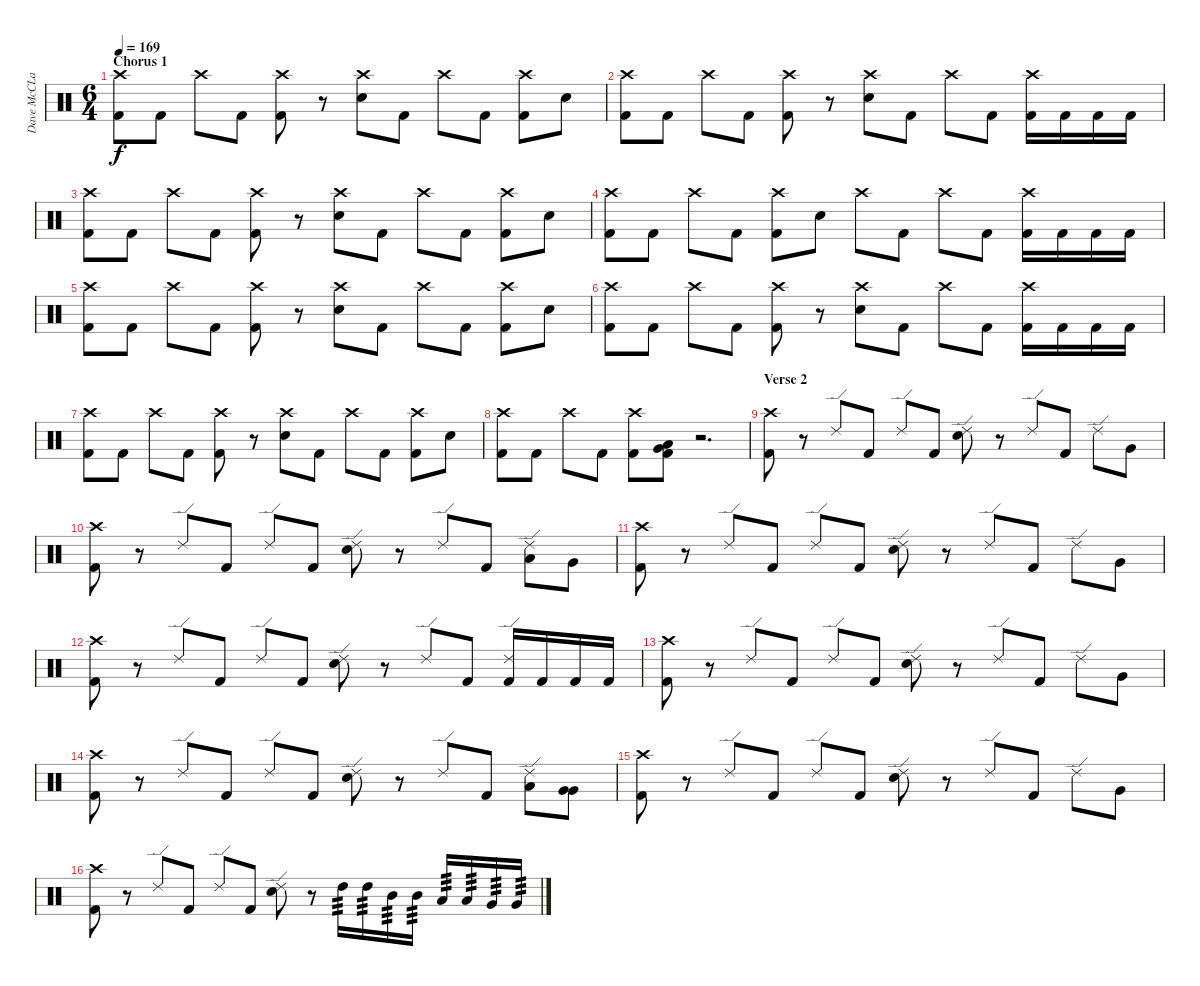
\track ("Dave McCLain" "Dave McCLa") {instrument percussion}
\staff {score}
\articulation defaults
\ts (6 4)
\section ("" "Chorus 1")
\tempo 169
\clef neutral
\ks c
("Crash high (hit)" "Kick (hit) 2").8{dy f} "Kick (hit) 2".8 "Crash high (hit)".8 "Kick (hit) 2".8 ("Crash high (hit)" "Kick (hit) 2").8 r.8 ("Crash high (hit)" "Electric Snare (hit)").8 "Kick (hit) 2".8 "Crash high (hit)".8 "Kick (hit) 2".8 ("Crash high (hit)" "Kick (hit) 2").8 "Electric Snare (hit)".8 |
("Crash high (hit)" "Kick (hit) 2").8 "Kick (hit) 2".8 "Crash high (hit)".8 "Kick (hit) 2".8 ("Crash high (hit)" "Kick (hit) 2").8 r.8 ("Crash high (hit)" "Electric Snare (hit)").8 "Kick (hit) 2".8 "Crash high (hit)".8 "Kick (hit) 2".8 ("Crash high (hit)" "Kick (hit) 2").16 "Kick (hit) 2".16 "Kick (hit) 2".16 "Kick (hit) 2".16 |
("Crash high (hit)" "Kick (hit) 2").8 "Kick (hit) 2".8 "Crash high (hit)".8 "Kick (hit) 2".8 ("Crash high (hit)" "Kick (hit) 2").8 r.8 ("Crash high (hit)" "Electric Snare (hit)").8 "Kick (hit) 2".8 "Crash high (hit)".8 "Kick (hit) 2".8 ("Crash high (hit)" "Kick (hit) 2").8 "Electric Snare (hit)".8 |
("Crash high (hit)" "Kick (hit) 2").8 "Kick (hit) 2".8 "Crash high (hit)".8 "Kick (hit) 2".8 ("Crash high (hit)" "Kick (hit) 2").8 "Electric Snare (hit)".8 "Crash high (hit)".8 "Kick (hit) 2".8 "Crash high (hit)".8 "Kick (hit) 2".8 ("Crash high (hit)" "Kick (hit) 2").16 "Kick (hit) 2".16 "Kick (hit) 2".16 "Kick (hit) 2".16 |
("Crash high (hit)" "Kick (hit) 2").8 "Kick (hit) 2".8 "Crash high (hit)".8 "Kick (hit) 2".8 ("Crash high (hit)" "Kick (hit) 2").8 r.8 ("Crash high (hit)" "Electric Snare (hit)").8 "Kick (hit) 2".8 "Crash high (hit)".8 "Kick (hit) 2".8 ("Crash high (hit)" "Kick (hit) 2").8 "Electric Snare (hit)".8 |
("Crash high (hit)" "Kick (hit) 2").8 "Kick (hit) 2".8 "Crash high (hit)".8 "Kick (hit) 2".8 ("Crash high (hit)" "Kick (hit) 2").8 r.8 ("Crash high (hit)" "Electric Snare (hit)").8 "Kick (hit) 2".8 "Crash high (hit)".8 "Kick (hit) 2".8 ("Crash high (hit)" "Kick (hit) 2").16 "Kick (hit) 2".16 "Kick (hit) 2".16 "Kick (hit) 2".16 |
("Crash high (hit)" "Kick (hit) 2").8 "Kick (hit) 2".8 "Crash high (hit)".8 "Kick (hit) 2".8 ("Crash high (hit)" "Kick (hit) 2").8 r.8 ("Crash high (hit)" "Electric Snare (hit)").8 "Kick (hit) 2".8 "Crash high (hit)".8 "Kick (hit) 2".8 ("Crash high (hit)" "Kick (hit) 2").8 "Electric Snare (hit)".8 |
("Crash high (hit)" "Kick (hit) 2").8 "Kick (hit) 2".8 "Crash high (hit)".8 "Kick (hit) 2".8 ("Crash high (hit)" "Kick (hit) 2").8 ("Low Tom (hit)" "Very Low Tom (hit)" "Kick (hit) 2").8 r.2{d} |
\section ("" "Verse 2")
("Crash high (hit)" "Kick (hit) 2").8 r.8 "Ride (edge) 2".8 "Kick (hit) 2".8 "Ride (edge) 2".8 "Kick (hit) 2".8 ("Ride (edge) 2" "Electric Snare (hit)").8 r.8 "Ride (edge) 2".8 "Kick (hit) 2".8 "Ride (edge) 2".8 "Very Low Tom (hit)".8 |
("Crash high (hit)" "Kick (hit) 2").8 r.8 "Ride (edge) 2".8 "Kick (hit) 2".8 "Ride (edge) 2".8 "Kick (hit) 2".8 ("Ride (edge) 2" "Electric Snare (hit)").8 r.8 "Ride (edge) 2".8 "Kick (hit) 2".8 ("Ride (edge) 2" "Low Tom (hit)").8 "Very Low Tom (hit)".8 |
("Crash high (hit)" "Kick (hit) 2").8 r.8 "Ride (edge) 2".8 "Kick (hit) 2".8 "Ride (edge) 2".8 "Kick (hit) 2".8 ("Ride (edge) 2" "Electric Snare (hit)").8 r.8 "Ride (edge) 2".8 "Kick (hit) 2".8 "Ride (edge) 2".8 "Very Low Tom (hit)".8 |
("Crash high (hit)" "Kick (hit) 2").8 r.8 "Ride (edge) 2".8 "Kick (hit) 2".8 "Ride (edge) 2".8 "Kick (hit) 2".8 ("Ride (edge) 2" "Electric Snare (hit)").8 r.8 "Ride (edge) 2".8 "Kick (hit) 2".8 ("Ride (edge) 2" "Kick (hit) 2").16 "Kick (hit) 2".16 "Kick (hit) 2".16 "Kick (hit) 2".16 |
("Crash high (hit)" "Kick (hit) 2").8 r.8 "Ride (edge) 2".8 "Kick (hit) 2".8 "Ride (edge) 2".8 "Kick (hit) 2".8 ("Ride (edge) 2" "Electric Snare (hit)").8 r.8 "Ride (edge) 2".8 "Kick (hit) 2".8 "Ride (edge) 2".8 "Very Low Tom (hit)".8 |
("Crash high (hit)" "Kick (hit) 2").8 r.8 "Ride (edge) 2".8 "Kick (hit) 2".8 "Ride (edge) 2".8 "Kick (hit) 2".8 ("Ride (edge) 2" "Electric Snare (hit)").8 r.8 "Ride (edge) 2".8 "Kick (hit) 2".8 ("Ride (edge) 2" "Low Tom (hit)").8 ("Very Low Tom (hit)" "Very Low Tom (hit)").8 |
("Crash high (hit)" "Kick (hit) 2").8 r.8 "Ride (edge) 2".8 "Kick (hit) 2".8 "Ride (edge) 2".8 "Kick (hit) 2".8 ("Ride (edge) 2" "Electric Snare (hit)").8 r.8 "Ride (edge) 2".8 "Kick (hit) 2".8 "Ride (edge) 2".8 "Very Low Tom (hit)".8 |
("Crash high (hit)" "Kick (hit) 2").8 r.8 "Ride (edge) 2".8 "Kick (hit) 2".8 "Ride (edge) 2".8 "Kick (hit) 2".8 ("Ride (edge) 2" "Electric Snare (hit)").8 r.8 "High Tom (hit)".16{tp 3} "High Tom (hit)".16{tp 3} "Mid Tom (hit)".16{tp 3} "Mid Tom (hit)".16{tp 3} "Low Tom (hit)".16{tp 3} "Low Tom (hit)".16{tp 3} "Very Low Tom (hit)".16{tp 3} "Very Low Tom (hit)".16{tp 3}
